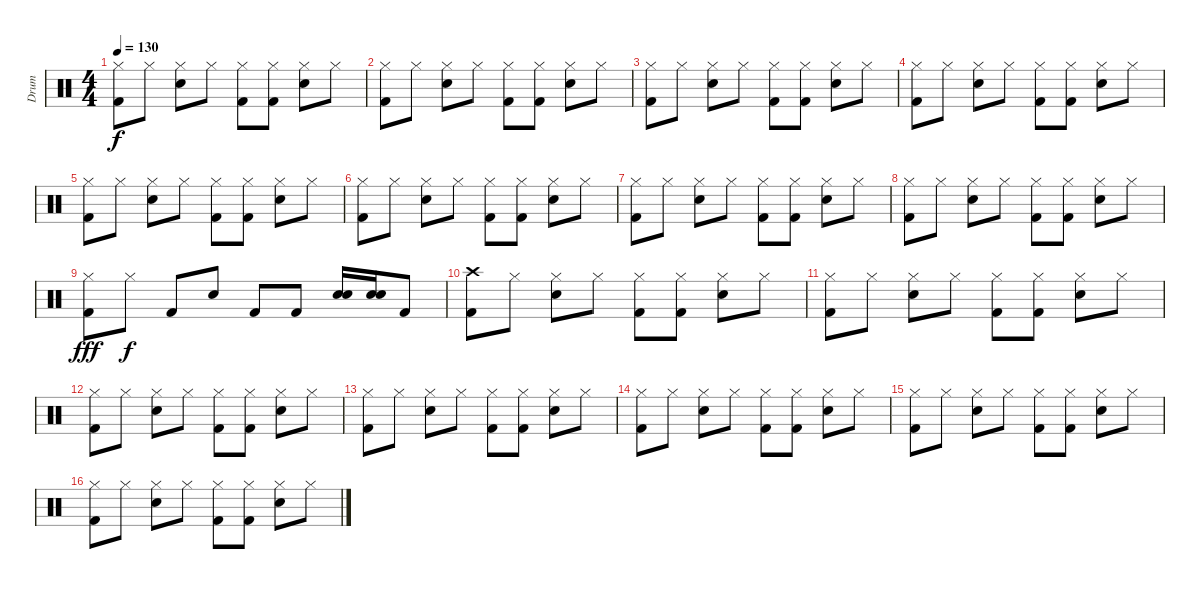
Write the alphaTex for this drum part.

\track ("Drum" "Drum") {instrument percussion}
\staff {score}
\articulation defaults
\ts (4 4)
\tempo 130
\clef neutral
\ks c
("Hi-Hat (closed)" "Kick (hit) 2").8{dy f} "Hi-Hat (closed)".8 ("Hi-Hat (closed)" "Snare (hit) 2").8 "Hi-Hat (closed)".8 ("Hi-Hat (closed)" "Kick (hit) 2").8 ("Hi-Hat (closed)" "Kick (hit) 2").8 ("Hi-Hat (closed)" "Snare (hit) 2").8 "Hi-Hat (closed)".8 |
("Hi-Hat (closed)" "Kick (hit) 2").8 "Hi-Hat (closed)".8 ("Hi-Hat (closed)" "Snare (hit) 2").8 "Hi-Hat (closed)".8 ("Hi-Hat (closed)" "Kick (hit) 2").8 ("Hi-Hat (closed)" "Kick (hit) 2").8 ("Hi-Hat (closed)" "Snare (hit) 2").8 "Hi-Hat (closed)".8 |
("Hi-Hat (closed)" "Kick (hit) 2").8 "Hi-Hat (closed)".8 ("Hi-Hat (closed)" "Snare (hit) 2").8 "Hi-Hat (closed)".8 ("Hi-Hat (closed)" "Kick (hit) 2").8 ("Hi-Hat (closed)" "Kick (hit) 2").8 ("Hi-Hat (closed)" "Snare (hit) 2").8 "Hi-Hat (closed)".8 |
("Hi-Hat (closed)" "Kick (hit) 2").8 "Hi-Hat (closed)".8 ("Hi-Hat (closed)" "Snare (hit) 2").8 "Hi-Hat (closed)".8 ("Hi-Hat (closed)" "Kick (hit) 2").8 ("Hi-Hat (closed)" "Kick (hit) 2").8 ("Hi-Hat (closed)" "Snare (hit) 2").8 "Hi-Hat (closed)".8 |
("Hi-Hat (closed)" "Kick (hit) 2").8 "Hi-Hat (closed)".8 ("Hi-Hat (closed)" "Snare (hit) 2").8 "Hi-Hat (closed)".8 ("Hi-Hat (closed)" "Kick (hit) 2").8 ("Hi-Hat (closed)" "Kick (hit) 2").8 ("Hi-Hat (closed)" "Snare (hit) 2").8 "Hi-Hat (closed)".8 |
("Hi-Hat (closed)" "Kick (hit) 2").8 "Hi-Hat (closed)".8 ("Hi-Hat (closed)" "Snare (hit) 2").8 "Hi-Hat (closed)".8 ("Hi-Hat (closed)" "Kick (hit) 2").8 ("Hi-Hat (closed)" "Kick (hit) 2").8 ("Hi-Hat (closed)" "Snare (hit) 2").8 "Hi-Hat (closed)".8 |
("Hi-Hat (closed)" "Kick (hit) 2").8 "Hi-Hat (closed)".8 ("Hi-Hat (closed)" "Snare (hit) 2").8 "Hi-Hat (closed)".8 ("Hi-Hat (closed)" "Kick (hit) 2").8 ("Hi-Hat (closed)" "Kick (hit) 2").8 ("Hi-Hat (closed)" "Snare (hit) 2").8 "Hi-Hat (closed)".8 |
("Hi-Hat (closed)" "Kick (hit) 2").8 "Hi-Hat (closed)".8 ("Hi-Hat (closed)" "Snare (hit) 2").8 "Hi-Hat (closed)".8 ("Hi-Hat (closed)" "Kick (hit) 2").8 ("Hi-Hat (closed)" "Kick (hit) 2").8 ("Hi-Hat (closed)" "Snare (hit) 2").8 "Hi-Hat (closed)".8 |
("Hi-Hat (closed)" "Kick (hit) 2").8{dy fff} "Hi-Hat (closed)".8{dy f} "Kick (hit) 2".8 "Snare (hit) 2".8 "Kick (hit) 2".8 "Kick (hit) 2".8 ("Snare (hit) 2" "Electric Snare (hit)").16 ("Snare (hit) 2" "Electric Snare (hit)").16 "Kick (hit) 2".8 |
("Crash high (hit)" "Kick (hit) 2").8 "Hi-Hat (closed)".8 ("Hi-Hat (closed)" "Snare (hit) 2").8 "Hi-Hat (closed)".8 ("Hi-Hat (closed)" "Kick (hit) 2").8 ("Hi-Hat (closed)" "Kick (hit) 2").8 ("Hi-Hat (closed)" "Snare (hit) 2").8 "Hi-Hat (closed)".8 |
("Hi-Hat (closed)" "Kick (hit) 2").8 "Hi-Hat (closed)".8 ("Hi-Hat (closed)" "Snare (hit) 2").8 "Hi-Hat (closed)".8 ("Hi-Hat (closed)" "Kick (hit) 2").8 ("Hi-Hat (closed)" "Kick (hit) 2").8 ("Hi-Hat (closed)" "Snare (hit) 2").8 "Hi-Hat (closed)".8 |
("Hi-Hat (closed)" "Kick (hit) 2").8 "Hi-Hat (closed)".8 ("Hi-Hat (closed)" "Snare (hit) 2").8 "Hi-Hat (closed)".8 ("Hi-Hat (closed)" "Kick (hit) 2").8 ("Hi-Hat (closed)" "Kick (hit) 2").8 ("Hi-Hat (closed)" "Snare (hit) 2").8 "Hi-Hat (closed)".8 |
("Hi-Hat (closed)" "Kick (hit) 2").8 "Hi-Hat (closed)".8 ("Hi-Hat (closed)" "Snare (hit) 2").8 "Hi-Hat (closed)".8 ("Hi-Hat (closed)" "Kick (hit) 2").8 ("Hi-Hat (closed)" "Kick (hit) 2").8 ("Hi-Hat (closed)" "Snare (hit) 2").8 "Hi-Hat (closed)".8 |
("Hi-Hat (closed)" "Kick (hit) 2").8 "Hi-Hat (closed)".8 ("Hi-Hat (closed)" "Snare (hit) 2").8 "Hi-Hat (closed)".8 ("Hi-Hat (closed)" "Kick (hit) 2").8 ("Hi-Hat (closed)" "Kick (hit) 2").8 ("Hi-Hat (closed)" "Snare (hit) 2").8 "Hi-Hat (closed)".8 |
("Hi-Hat (closed)" "Kick (hit) 2").8 "Hi-Hat (closed)".8 ("Hi-Hat (closed)" "Snare (hit) 2").8 "Hi-Hat (closed)".8 ("Hi-Hat (closed)" "Kick (hit) 2").8 ("Hi-Hat (closed)" "Kick (hit) 2").8 ("Hi-Hat (closed)" "Snare (hit) 2").8 "Hi-Hat (closed)".8 |
("Hi-Hat (closed)" "Kick (hit) 2").8 "Hi-Hat (closed)".8 ("Hi-Hat (closed)" "Snare (hit) 2").8 "Hi-Hat (closed)".8 ("Hi-Hat (closed)" "Kick (hit) 2").8 ("Hi-Hat (closed)" "Kick (hit) 2").8 ("Hi-Hat (closed)" "Snare (hit) 2").8 "Hi-Hat (closed)".8
